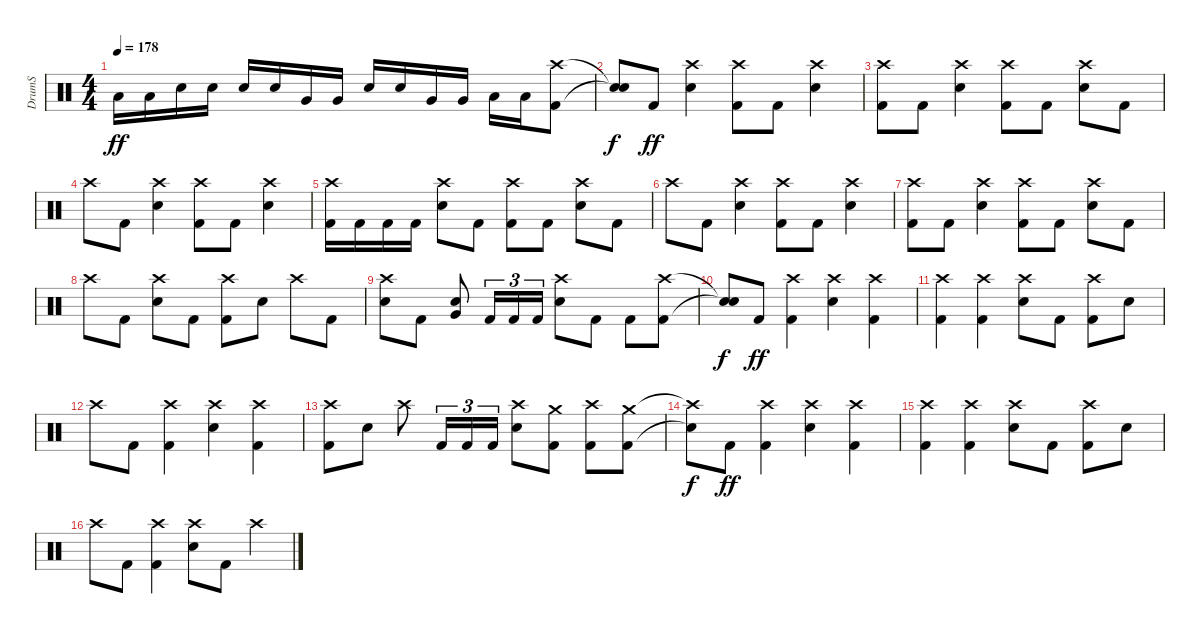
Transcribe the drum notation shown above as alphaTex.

\track ("DrumS" "DrumS") {instrument percussion}
\staff {score}
\articulation defaults
\ts (4 4)
\tempo 178
\clef neutral
\ks c "Low Tom (hit)".16{dy ff} "Low Tom (hit)".16 "Electric Snare (hit)".16 "Electric Snare (hit)".16 "Electric Snare (hit)".16 "Electric Snare (hit)".16 "Very Low Tom (hit)".16 "Very Low Tom (hit)".16 "Electric Snare (hit)".16 "Electric Snare (hit)".16 "Very Low Tom (hit)".16 "Very Low Tom (hit)".16 "Low Floor Tom (hit)".16 "Low Floor Tom (hit)".16
("Crash high (hit)" "Kick (hit) 2").8 |
("Snare (hit)"{t} "Snare (hit)"{t}).8{dy f} "Kick (hit) 2".8{dy ff} ("Crash high (hit)" "Electric Snare (hit)").4 ("Crash high (hit)" "Kick (hit) 2").8 "Kick (hit) 2".8 ("Crash high (hit)" "Electric Snare (hit)").4 |
("Crash high (hit)" "Kick (hit) 2").8 "Kick (hit) 2".8 ("Crash high (hit)" "Electric Snare (hit)").4 ("Crash high (hit)" "Kick (hit) 2").8 "Kick (hit) 2".8 ("Crash high (hit)" "Electric Snare (hit)").8 "Kick (hit) 2".8 |
"Crash high (hit)".8 "Kick (hit) 2".8 ("Crash high (hit)" "Electric Snare (hit)").4 ("Crash high (hit)" "Kick (hit) 2").8 "Kick (hit) 2".8 ("Crash high (hit)" "Electric Snare (hit)").4 |
("Crash high (hit)" "Kick (hit) 2").16 "Kick (hit) 2".16 "Kick (hit) 2".16 "Kick (hit) 2".16 ("Crash high (hit)" "Electric Snare (hit)").8 "Kick (hit) 2".8 ("Crash high (hit)" "Kick (hit) 2").8 "Kick (hit) 2".8 ("Crash high (hit)" "Electric Snare (hit)").8 "Kick (hit) 2".8 |
"Crash high (hit)".8 "Kick (hit) 2".8 ("Crash high (hit)" "Electric Snare (hit)").4 ("Crash high (hit)" "Kick (hit) 2").8 "Kick (hit) 2".8 ("Crash high (hit)" "Electric Snare (hit)").4 |
("Crash high (hit)" "Kick (hit) 2").8 "Kick (hit) 2".8 ("Crash high (hit)" "Electric Snare (hit)").4 ("Crash high (hit)" "Kick (hit) 2").8 "Kick (hit) 2".8 ("Crash high (hit)" "Electric Snare (hit)").8 "Kick (hit) 2".8 |
"Crash high (hit)".8 "Kick (hit) 2".8 ("Crash high (hit)" "Electric Snare (hit)").8 "Kick (hit) 2".8 ("Crash high (hit)" "Kick (hit) 2").8 "Electric Snare (hit)".8 "Crash high (hit)".8 "Kick (hit) 2".8 |
("Crash high (hit)" "Electric Snare (hit)").8 "Kick (hit) 2".8 ("Very Low Tom (hit)" "Electric Snare (hit)").8 "Kick (hit) 2".16{tu (3 2)} "Kick (hit) 2".16{tu (3 2)} "Kick (hit) 2".16{tu (3 2)} ("Crash high (hit)" "Electric Snare (hit)").8 "Kick (hit) 2".8 "Kick (hit) 2".8 ("Crash high (hit)" "Kick (hit) 2").8 |
("Snare (hit)"{t} "Snare (hit)"{t}).8{dy f} "Kick (hit) 2".8{dy ff} ("Crash high (hit)" "Kick (hit) 2").4 ("Crash high (hit)" "Electric Snare (hit)").4 ("Crash high (hit)" "Kick (hit) 2").4 |
("Crash high (hit)" "Kick (hit) 2").4 ("Crash high (hit)" "Kick (hit) 2").4 ("Crash high (hit)" "Electric Snare (hit)").8 "Kick (hit) 2".8 ("Crash high (hit)" "Kick (hit) 2").8 "Electric Snare (hit)".8 |
"Crash high (hit)".8 "Kick (hit) 2".8 ("Crash high (hit)" "Kick (hit) 2").4 ("Crash high (hit)" "Electric Snare (hit)").4 ("Crash high (hit)" "Kick (hit) 2").4 |
("Crash high (hit)" "Kick (hit) 2").8 "Electric Snare (hit)".8 "Crash high (hit)".8 "Kick (hit) 2".16{tu (3 2)} "Kick (hit) 2".16{tu (3 2)} "Kick (hit) 2".16{tu (3 2)} ("Crash high (hit)" "Electric Snare (hit)").8 ("Crash medium (hit)" "Kick (hit) 2").8 ("Crash high (hit)" "Kick (hit) 2").8 ("Crash medium (hit)" "Kick (hit) 2").8 |
("Crash high (hit)"{t} "Snare (hit)"{t}).8{dy f} "Kick (hit) 2".8{dy ff} ("Crash high (hit)" "Kick (hit) 2").4 ("Crash high (hit)" "Electric Snare (hit)").4 ("Crash high (hit)" "Kick (hit) 2").4 |
("Crash high (hit)" "Kick (hit) 2").4 ("Crash high (hit)" "Kick (hit) 2").4 ("Crash high (hit)" "Electric Snare (hit)").8 "Kick (hit) 2".8 ("Crash high (hit)" "Kick (hit) 2").8 "Electric Snare (hit)".8 |
"Crash high (hit)".8 "Kick (hit) 2".8 ("Crash high (hit)" "Kick (hit) 2").4 ("Crash high (hit)" "Electric Snare (hit)").8 "Kick (hit) 2".8 "Crash high (hit)".4
